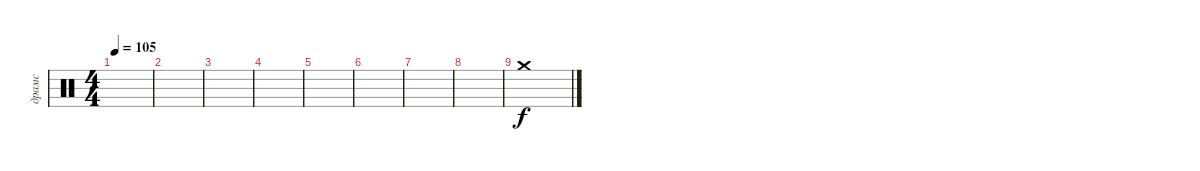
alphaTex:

\track ("драмс" "драмс") {instrument percussion}
\staff {score}
\articulation defaults
\ts (4 4)
\tempo 105
\clef neutral
\ks c
|
|
|
|
|
|
|
|
"Crash medium (hit)".1
